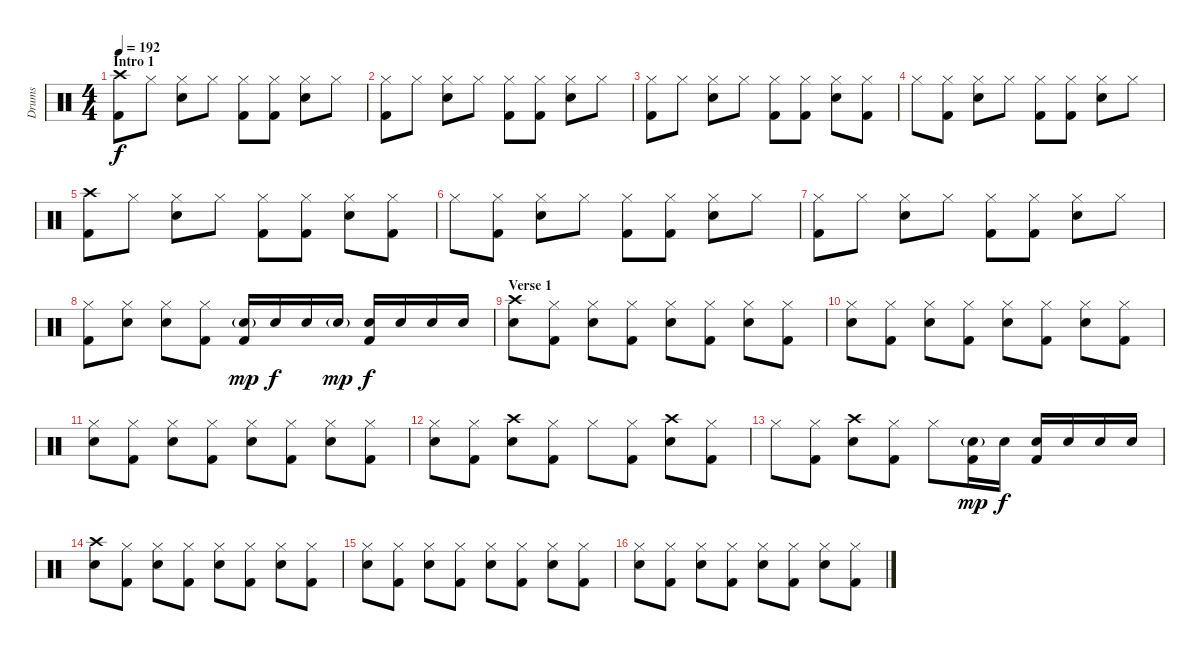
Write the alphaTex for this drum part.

\track ("Drums" "Drums") {instrument percussion}
\staff {score}
\articulation defaults
\ts (4 4)
\section ("" "Intro 1")
\tempo 192
\clef neutral
\ks c
("Crash high (hit)" "Kick (hit) 2").8{dy f} "Hi-Hat (closed)".8 ("Hi-Hat (closed)" "Electric Snare (hit)").8 "Hi-Hat (closed)".8 ("Hi-Hat (closed)" "Kick (hit) 2").8 ("Hi-Hat (closed)" "Kick (hit) 2").8 ("Hi-Hat (closed)" "Electric Snare (hit)").8 "Hi-Hat (closed)".8 |
("Hi-Hat (closed)" "Kick (hit) 2").8 "Hi-Hat (closed)".8 ("Hi-Hat (closed)" "Electric Snare (hit)").8 "Hi-Hat (closed)".8 ("Hi-Hat (closed)" "Kick (hit) 2").8 ("Hi-Hat (closed)" "Kick (hit) 2").8 ("Hi-Hat (closed)" "Electric Snare (hit)").8 "Hi-Hat (closed)".8 |
("Hi-Hat (closed)" "Kick (hit) 2").8 "Hi-Hat (closed)".8 ("Hi-Hat (closed)" "Electric Snare (hit)").8 "Hi-Hat (closed)".8 ("Hi-Hat (closed)" "Kick (hit) 2").8 ("Hi-Hat (closed)" "Kick (hit) 2").8 ("Hi-Hat (closed)" "Electric Snare (hit)").8 ("Hi-Hat (closed)" "Kick (hit) 2").8 |
"Hi-Hat (closed)".8 ("Hi-Hat (closed)" "Kick (hit) 2").8 ("Hi-Hat (closed)" "Electric Snare (hit)").8 "Hi-Hat (closed)".8 ("Hi-Hat (closed)" "Kick (hit) 2").8 ("Hi-Hat (closed)" "Kick (hit) 2").8 ("Hi-Hat (closed)" "Electric Snare (hit)").8 "Hi-Hat (closed)".8 |
("Crash high (hit)" "Kick (hit) 2").8 "Hi-Hat (closed)".8 ("Hi-Hat (closed)" "Electric Snare (hit)").8 "Hi-Hat (closed)".8 ("Hi-Hat (closed)" "Kick (hit) 2").8 ("Hi-Hat (closed)" "Kick (hit) 2").8 ("Hi-Hat (closed)" "Electric Snare (hit)").8 ("Hi-Hat (closed)" "Kick (hit) 2").8 |
"Hi-Hat (closed)".8 ("Hi-Hat (closed)" "Kick (hit) 2").8 ("Hi-Hat (closed)" "Electric Snare (hit)").8 "Hi-Hat (closed)".8 ("Hi-Hat (closed)" "Kick (hit) 2").8 ("Hi-Hat (closed)" "Kick (hit) 2").8 ("Hi-Hat (closed)" "Electric Snare (hit)").8 "Hi-Hat (closed)".8 |
("Hi-Hat (closed)" "Kick (hit) 2").8 "Hi-Hat (closed)".8 ("Hi-Hat (closed)" "Electric Snare (hit)").8 "Hi-Hat (closed)".8 ("Hi-Hat (closed)" "Kick (hit) 2").8 ("Hi-Hat (closed)" "Kick (hit) 2").8 ("Hi-Hat (closed)" "Electric Snare (hit)").8 "Hi-Hat (closed)".8 |
("Hi-Hat (closed)" "Kick (hit) 2").8 ("Hi-Hat (closed)" "Electric Snare (hit)").8 ("Hi-Hat (closed)" "Electric Snare (hit)").8 ("Hi-Hat (closed)" "Kick (hit) 2").8 ("Electric Snare (hit)"{g} "Kick (hit) 2").16{dy mp} "Electric Snare (hit)".16{dy f} "Electric Snare (hit)".16 "Electric Snare (hit)"{g}.16{dy mp} ("Electric Snare (hit)" "Kick (hit) 2").16{dy f} "Electric Snare (hit)".16 "Electric Snare (hit)".16 "Electric Snare (hit)".16 |
\section ("" "Verse 1")
("Crash high (hit)" "Electric Snare (hit)").8 ("Hi-Hat (closed)" "Kick (hit) 2").8 ("Hi-Hat (closed)" "Electric Snare (hit)").8 ("Hi-Hat (closed)" "Kick (hit) 2").8 ("Hi-Hat (closed)" "Electric Snare (hit)").8 ("Hi-Hat (closed)" "Kick (hit) 2").8 ("Hi-Hat (closed)" "Electric Snare (hit)").8 ("Hi-Hat (closed)" "Kick (hit) 2").8 |
("Hi-Hat (closed)" "Electric Snare (hit)").8 ("Hi-Hat (closed)" "Kick (hit) 2").8 ("Hi-Hat (closed)" "Electric Snare (hit)").8 ("Hi-Hat (closed)" "Kick (hit) 2").8 ("Hi-Hat (closed)" "Electric Snare (hit)").8 ("Hi-Hat (closed)" "Kick (hit) 2").8 ("Hi-Hat (closed)" "Electric Snare (hit)").8 ("Hi-Hat (closed)" "Kick (hit) 2").8 |
("Hi-Hat (closed)" "Electric Snare (hit)").8 ("Hi-Hat (closed)" "Kick (hit) 2").8 ("Hi-Hat (closed)" "Electric Snare (hit)").8 ("Hi-Hat (closed)" "Kick (hit) 2").8 ("Hi-Hat (closed)" "Electric Snare (hit)").8 ("Hi-Hat (closed)" "Kick (hit) 2").8 ("Hi-Hat (closed)" "Electric Snare (hit)").8 ("Hi-Hat (closed)" "Kick (hit) 2").8 |
("Hi-Hat (closed)" "Electric Snare (hit)").8 ("Hi-Hat (closed)" "Kick (hit) 2").8 ("Crash high (hit)" "Electric Snare (hit)").8 ("Hi-Hat (closed)" "Kick (hit) 2").8 "Hi-Hat (closed)".8 ("Hi-Hat (closed)" "Kick (hit) 2").8 ("Crash high (hit)" "Electric Snare (hit)").8 ("Hi-Hat (closed)" "Kick (hit) 2").8 |
"Hi-Hat (closed)".8 ("Hi-Hat (closed)" "Kick (hit) 2").8 ("Crash high (hit)" "Electric Snare (hit)").8 ("Hi-Hat (closed)" "Kick (hit) 2").8 "Hi-Hat (closed)".8 ("Electric Snare (hit)"{g} "Kick (hit) 2").16{dy mp} "Electric Snare (hit)".16{dy f} ("Electric Snare (hit)" "Kick (hit) 2").16 "Electric Snare (hit)".16 "Electric Snare (hit)".16 "Electric Snare (hit)".16 |
("Crash high (hit)" "Electric Snare (hit)").8 ("Hi-Hat (closed)" "Kick (hit) 2").8 ("Hi-Hat (closed)" "Electric Snare (hit)").8 ("Hi-Hat (closed)" "Kick (hit) 2").8 ("Hi-Hat (closed)" "Electric Snare (hit)").8 ("Hi-Hat (closed)" "Kick (hit) 2").8 ("Hi-Hat (closed)" "Electric Snare (hit)").8 ("Hi-Hat (closed)" "Kick (hit) 2").8 |
("Hi-Hat (closed)" "Electric Snare (hit)").8 ("Hi-Hat (closed)" "Kick (hit) 2").8 ("Hi-Hat (closed)" "Electric Snare (hit)").8 ("Hi-Hat (closed)" "Kick (hit) 2").8 ("Hi-Hat (closed)" "Electric Snare (hit)").8 ("Hi-Hat (closed)" "Kick (hit) 2").8 ("Hi-Hat (closed)" "Electric Snare (hit)").8 ("Hi-Hat (closed)" "Kick (hit) 2").8 |
("Hi-Hat (closed)" "Electric Snare (hit)").8 ("Hi-Hat (closed)" "Kick (hit) 2").8 ("Hi-Hat (closed)" "Electric Snare (hit)").8 ("Hi-Hat (closed)" "Kick (hit) 2").8 ("Hi-Hat (closed)" "Electric Snare (hit)").8 ("Hi-Hat (closed)" "Kick (hit) 2").8 ("Hi-Hat (closed)" "Electric Snare (hit)").8 ("Hi-Hat (closed)" "Kick (hit) 2").8
